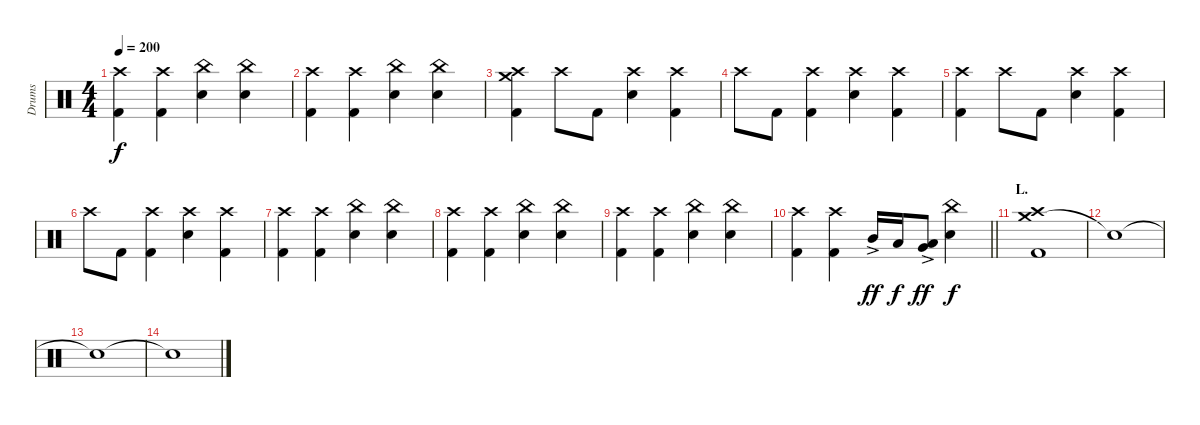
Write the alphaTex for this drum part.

\track ("Drums" "Drums") {instrument percussion}
\staff {score}
\articulation defaults
\ts (4 4)
\tempo 200
\clef neutral
\ks c
("Crash high (hit)" "Kick (hit) 2").4{dy f} ("Crash high (hit)" "Kick (hit) 2").4 ("China (hit)" "Electric Snare (hit)").4 ("China (hit)" "Electric Snare (hit)").4 |
("Crash high (hit)" "Kick (hit) 2").4 ("Crash high (hit)" "Kick (hit) 2").4 ("China (hit)" "Electric Snare (hit)").4 ("China (hit)" "Electric Snare (hit)").4 |
("Crash medium (hit)" "Crash high (hit)" "Kick (hit) 2").4 "Crash high (hit)".8 "Kick (hit) 2".8 ("Crash high (hit)" "Electric Snare (hit)").4 ("Crash high (hit)" "Kick (hit) 2").4 |
"Crash high (hit)".8 "Kick (hit) 2".8 ("Crash high (hit)" "Kick (hit) 2").4 ("Crash high (hit)" "Electric Snare (hit)").4 ("Crash high (hit)" "Kick (hit) 2").4 |
("Crash high (hit)" "Kick (hit) 2").4 "Crash high (hit)".8 "Kick (hit) 2".8 ("Crash high (hit)" "Electric Snare (hit)").4 ("Crash high (hit)" "Kick (hit) 2").4 |
"Crash high (hit)".8 "Kick (hit) 2".8 ("Crash high (hit)" "Kick (hit) 2").4 ("Crash high (hit)" "Electric Snare (hit)").4 ("Crash high (hit)" "Kick (hit) 2").4 |
("Crash high (hit)" "Kick (hit) 2").4 ("Crash high (hit)" "Kick (hit) 2").4 ("China (hit)" "Electric Snare (hit)").4 ("China (hit)" "Electric Snare (hit)").4 |
("Crash high (hit)" "Kick (hit) 2").4 ("Crash high (hit)" "Kick (hit) 2").4 ("China (hit)" "Electric Snare (hit)").4 ("China (hit)" "Electric Snare (hit)").4 |
("Crash high (hit)" "Kick (hit) 2").4 ("Crash high (hit)" "Kick (hit) 2").4 ("China (hit)" "Electric Snare (hit)").4 ("China (hit)" "Electric Snare (hit)").4 |
\barLineRight lightlight
("Crash high (hit)" "Kick (hit) 2").4 ("Crash high (hit)" "Kick (hit) 2").4 "Mid Tom (hit)"{ac}.16{dy ff} "Low Tom (hit)".16{dy f} ("Very Low Tom (hit)"{ac} "Low Floor Tom (hit)").8{dy ff} ("China (hit)" "Electric Snare (hit)").4{dy f} |
\section ("" "L.")
("Crash medium (hit)" "Crash high (hit)" "Kick (hit) 2").1 |
"Snare (hit)"{t}.1 |
"Snare (hit)"{t}.1 |
"Snare (hit)"{t}.1
